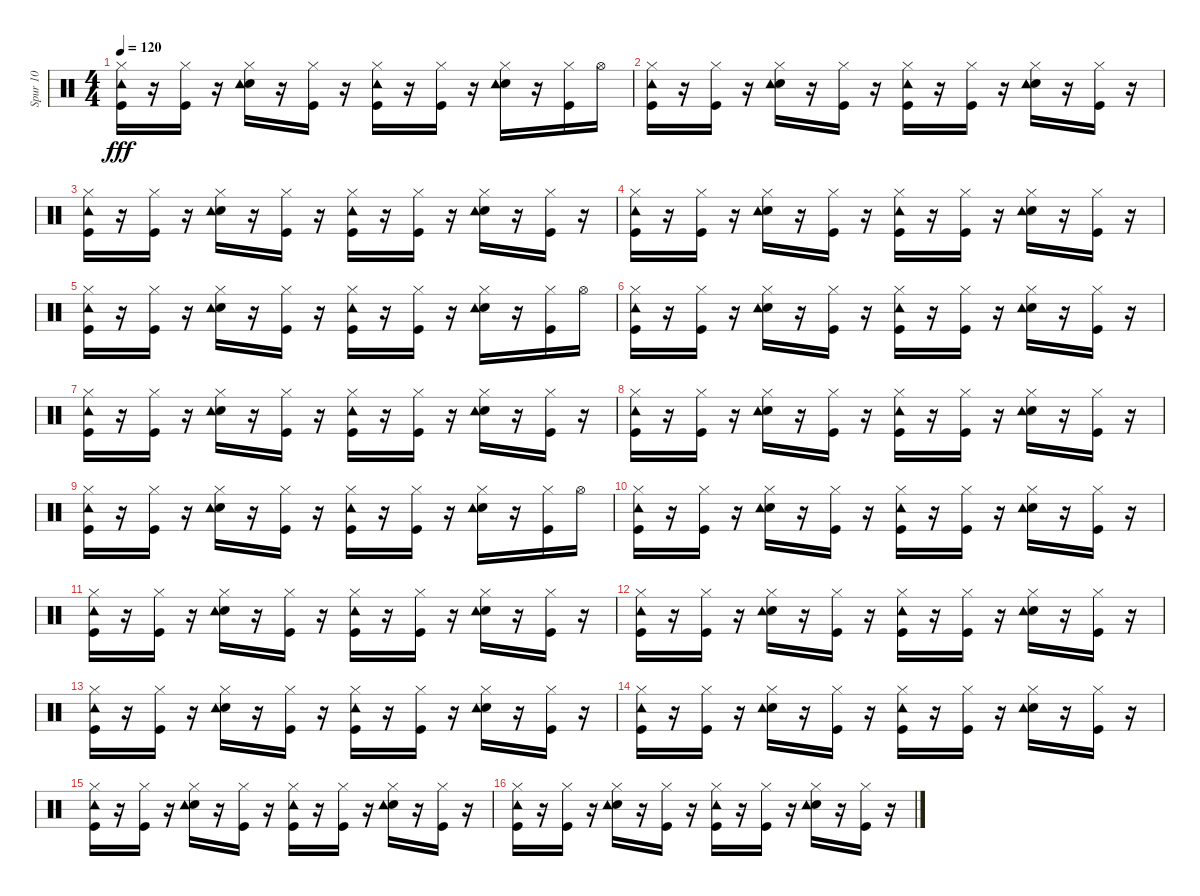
\track ("Spur 10" "Spur 10") {instrument percussion}
\staff {score}
\articulation defaults
\ts (4 4)
\tempo 120
\clef neutral
\ks c
("Kick (hit)" "Hi-Hat (closed)" "Tambourine (hit)").16{dy fff} r.16 ("Kick (hit)" "Hi-Hat (closed)").16 r.16 ("Snare (hit) 2" "Hi-Hat (closed)" "Tambourine (hit)").16 r.16 ("Kick (hit)" "Hi-Hat (closed)").16 r.16 ("Kick (hit)" "Hi-Hat (closed)" "Tambourine (hit)").16 r.16 ("Kick (hit)" "Hi-Hat (closed)").16 r.16 ("Snare (hit) 2" "Hi-Hat (closed)" "Tambourine (hit)").16 r.16 ("Kick (hit)" "Hi-Hat (closed)").16 "Hi-Hat (open)".16 |
("Kick (hit)" "Hi-Hat (closed)" "Tambourine (hit)").16 r.16 ("Kick (hit)" "Hi-Hat (closed)").16 r.16 ("Snare (hit) 2" "Hi-Hat (closed)" "Tambourine (hit)").16 r.16 ("Kick (hit)" "Hi-Hat (closed)").16 r.16 ("Kick (hit)" "Hi-Hat (closed)" "Tambourine (hit)").16 r.16 ("Kick (hit)" "Hi-Hat (closed)").16 r.16 ("Snare (hit) 2" "Hi-Hat (closed)" "Tambourine (hit)").16 r.16 ("Kick (hit)" "Hi-Hat (closed)").16 r.16 |
("Kick (hit)" "Hi-Hat (closed)" "Tambourine (hit)").16 r.16 ("Kick (hit)" "Hi-Hat (closed)").16 r.16 ("Snare (hit) 2" "Hi-Hat (closed)" "Tambourine (hit)").16 r.16 ("Kick (hit)" "Hi-Hat (closed)").16 r.16 ("Kick (hit)" "Hi-Hat (closed)" "Tambourine (hit)").16 r.16 ("Kick (hit)" "Hi-Hat (closed)").16 r.16 ("Snare (hit) 2" "Hi-Hat (closed)" "Tambourine (hit)").16 r.16 ("Kick (hit)" "Hi-Hat (closed)").16 r.16 |
("Kick (hit)" "Hi-Hat (closed)" "Tambourine (hit)").16 r.16 ("Kick (hit)" "Hi-Hat (closed)").16 r.16 ("Snare (hit) 2" "Hi-Hat (closed)" "Tambourine (hit)").16 r.16 ("Kick (hit)" "Hi-Hat (closed)").16 r.16 ("Kick (hit)" "Hi-Hat (closed)" "Tambourine (hit)").16 r.16 ("Kick (hit)" "Hi-Hat (closed)").16 r.16 ("Snare (hit) 2" "Hi-Hat (closed)" "Tambourine (hit)").16 r.16 ("Kick (hit)" "Hi-Hat (closed)").16 r.16 |
("Kick (hit)" "Hi-Hat (closed)" "Tambourine (hit)").16 r.16 ("Kick (hit)" "Hi-Hat (closed)").16 r.16 ("Snare (hit) 2" "Hi-Hat (closed)" "Tambourine (hit)").16 r.16 ("Kick (hit)" "Hi-Hat (closed)").16 r.16 ("Kick (hit)" "Hi-Hat (closed)" "Tambourine (hit)").16 r.16 ("Kick (hit)" "Hi-Hat (closed)").16 r.16 ("Snare (hit) 2" "Hi-Hat (closed)" "Tambourine (hit)").16 r.16 ("Kick (hit)" "Hi-Hat (closed)").16 "Hi-Hat (open)".16 |
("Kick (hit)" "Hi-Hat (closed)" "Tambourine (hit)").16 r.16 ("Kick (hit)" "Hi-Hat (closed)").16 r.16 ("Snare (hit) 2" "Hi-Hat (closed)" "Tambourine (hit)").16 r.16 ("Kick (hit)" "Hi-Hat (closed)").16 r.16 ("Kick (hit)" "Hi-Hat (closed)" "Tambourine (hit)").16 r.16 ("Kick (hit)" "Hi-Hat (closed)").16 r.16 ("Snare (hit) 2" "Hi-Hat (closed)" "Tambourine (hit)").16 r.16 ("Kick (hit)" "Hi-Hat (closed)").16 r.16 |
("Kick (hit)" "Hi-Hat (closed)" "Tambourine (hit)").16 r.16 ("Kick (hit)" "Hi-Hat (closed)").16 r.16 ("Snare (hit) 2" "Hi-Hat (closed)" "Tambourine (hit)").16 r.16 ("Kick (hit)" "Hi-Hat (closed)").16 r.16 ("Kick (hit)" "Hi-Hat (closed)" "Tambourine (hit)").16 r.16 ("Kick (hit)" "Hi-Hat (closed)").16 r.16 ("Snare (hit) 2" "Hi-Hat (closed)" "Tambourine (hit)").16 r.16 ("Kick (hit)" "Hi-Hat (closed)").16 r.16 |
("Kick (hit)" "Hi-Hat (closed)" "Tambourine (hit)").16 r.16 ("Kick (hit)" "Hi-Hat (closed)").16 r.16 ("Snare (hit) 2" "Hi-Hat (closed)" "Tambourine (hit)").16 r.16 ("Kick (hit)" "Hi-Hat (closed)").16 r.16 ("Kick (hit)" "Hi-Hat (closed)" "Tambourine (hit)").16 r.16 ("Kick (hit)" "Hi-Hat (closed)").16 r.16 ("Snare (hit) 2" "Hi-Hat (closed)" "Tambourine (hit)").16 r.16 ("Kick (hit)" "Hi-Hat (closed)").16 r.16 |
("Kick (hit)" "Hi-Hat (closed)" "Tambourine (hit)").16 r.16 ("Kick (hit)" "Hi-Hat (closed)").16 r.16 ("Snare (hit) 2" "Hi-Hat (closed)" "Tambourine (hit)").16 r.16 ("Kick (hit)" "Hi-Hat (closed)").16 r.16 ("Kick (hit)" "Hi-Hat (closed)" "Tambourine (hit)").16 r.16 ("Kick (hit)" "Hi-Hat (closed)").16 r.16 ("Snare (hit) 2" "Hi-Hat (closed)" "Tambourine (hit)").16 r.16 ("Kick (hit)" "Hi-Hat (closed)").16 "Hi-Hat (open)".16 |
("Kick (hit)" "Hi-Hat (closed)" "Tambourine (hit)").16 r.16 ("Kick (hit)" "Hi-Hat (closed)").16 r.16 ("Snare (hit) 2" "Hi-Hat (closed)" "Tambourine (hit)").16 r.16 ("Kick (hit)" "Hi-Hat (closed)").16 r.16 ("Kick (hit)" "Hi-Hat (closed)" "Tambourine (hit)").16 r.16 ("Kick (hit)" "Hi-Hat (closed)").16 r.16 ("Snare (hit) 2" "Hi-Hat (closed)" "Tambourine (hit)").16 r.16 ("Kick (hit)" "Hi-Hat (closed)").16 r.16 |
("Kick (hit)" "Hi-Hat (closed)" "Tambourine (hit)").16 r.16 ("Kick (hit)" "Hi-Hat (closed)").16 r.16 ("Snare (hit) 2" "Hi-Hat (closed)" "Tambourine (hit)").16 r.16 ("Kick (hit)" "Hi-Hat (closed)").16 r.16 ("Kick (hit)" "Hi-Hat (closed)" "Tambourine (hit)").16 r.16 ("Kick (hit)" "Hi-Hat (closed)").16 r.16 ("Snare (hit) 2" "Hi-Hat (closed)" "Tambourine (hit)").16 r.16 ("Kick (hit)" "Hi-Hat (closed)").16 r.16 |
("Kick (hit)" "Hi-Hat (closed)" "Tambourine (hit)").16 r.16 ("Kick (hit)" "Hi-Hat (closed)").16 r.16 ("Snare (hit) 2" "Hi-Hat (closed)" "Tambourine (hit)").16 r.16 ("Kick (hit)" "Hi-Hat (closed)").16 r.16 ("Kick (hit)" "Hi-Hat (closed)" "Tambourine (hit)").16 r.16 ("Kick (hit)" "Hi-Hat (closed)").16 r.16 ("Snare (hit) 2" "Hi-Hat (closed)" "Tambourine (hit)").16 r.16 ("Kick (hit)" "Hi-Hat (closed)").16 r.16 |
("Kick (hit)" "Hi-Hat (closed)" "Tambourine (hit)").16 r.16 ("Kick (hit)" "Hi-Hat (closed)").16 r.16 ("Snare (hit) 2" "Hi-Hat (closed)" "Tambourine (hit)").16 r.16 ("Kick (hit)" "Hi-Hat (closed)").16 r.16 ("Kick (hit)" "Hi-Hat (closed)" "Tambourine (hit)").16 r.16 ("Kick (hit)" "Hi-Hat (closed)").16 r.16 ("Snare (hit) 2" "Hi-Hat (closed)" "Tambourine (hit)").16 r.16 ("Kick (hit)" "Hi-Hat (closed)").16 r.16 |
("Kick (hit)" "Hi-Hat (closed)" "Tambourine (hit)").16 r.16 ("Kick (hit)" "Hi-Hat (closed)").16 r.16 ("Snare (hit) 2" "Hi-Hat (closed)" "Tambourine (hit)").16 r.16 ("Kick (hit)" "Hi-Hat (closed)").16 r.16 ("Kick (hit)" "Hi-Hat (closed)" "Tambourine (hit)").16 r.16 ("Kick (hit)" "Hi-Hat (closed)").16 r.16 ("Snare (hit) 2" "Hi-Hat (closed)" "Tambourine (hit)").16 r.16 ("Kick (hit)" "Hi-Hat (closed)").16 r.16 |
("Kick (hit)" "Hi-Hat (closed)" "Tambourine (hit)").16 r.16 ("Kick (hit)" "Hi-Hat (closed)").16 r.16 ("Snare (hit) 2" "Hi-Hat (closed)" "Tambourine (hit)").16 r.16 ("Kick (hit)" "Hi-Hat (closed)").16 r.16 ("Kick (hit)" "Hi-Hat (closed)" "Tambourine (hit)").16 r.16 ("Kick (hit)" "Hi-Hat (closed)").16 r.16 ("Snare (hit) 2" "Hi-Hat (closed)" "Tambourine (hit)").16 r.16 ("Kick (hit)" "Hi-Hat (closed)").16 r.16 |
("Kick (hit)" "Hi-Hat (closed)" "Tambourine (hit)").16 r.16 ("Kick (hit)" "Hi-Hat (closed)").16 r.16 ("Snare (hit) 2" "Hi-Hat (closed)" "Tambourine (hit)").16 r.16 ("Kick (hit)" "Hi-Hat (closed)").16 r.16 ("Kick (hit)" "Hi-Hat (closed)" "Tambourine (hit)").16 r.16 ("Kick (hit)" "Hi-Hat (closed)").16 r.16 ("Snare (hit) 2" "Hi-Hat (closed)" "Tambourine (hit)").16 r.16 ("Kick (hit)" "Hi-Hat (closed)").16 r.16
